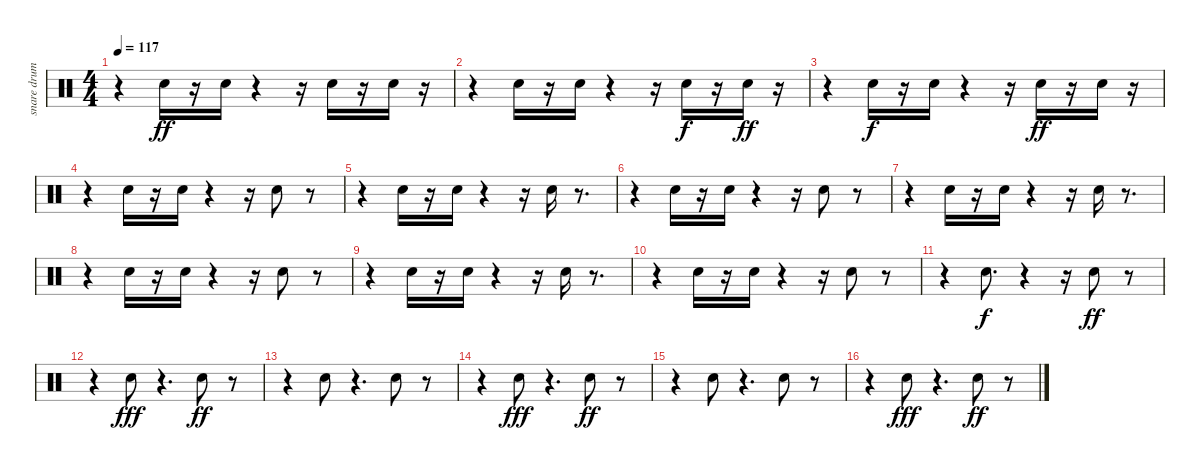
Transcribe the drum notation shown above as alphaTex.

\track ("snare drum" "snare drum") {instrument percussion}
\staff {score}
\articulation defaults
\ts (4 4)
\tempo 117
\clef neutral
\ks c
r.4{dy ff} "Snare (hit) 2".16 r.16 "Snare (hit) 2".16 r.4 r.16 "Snare (hit) 2".16 r.16 "Snare (hit) 2".16 r.16 |
r.4 "Snare (hit) 2".16 r.16 "Snare (hit) 2".16 r.4 r.16 "Snare (hit) 2".16{dy f} r.16 "Snare (hit) 2".16{dy ff} r.16 |
r.4 "Snare (hit) 2".16{dy f} r.16 "Snare (hit) 2".16 r.4 r.16 "Snare (hit) 2".16{dy ff} r.16 "Snare (hit) 2".16 r.16 |
r.4 "Snare (hit) 2".16 r.16 "Snare (hit) 2".16 r.4 r.16 "Snare (hit) 2".8 r.8 |
r.4 "Snare (hit) 2".16 r.16 "Snare (hit) 2".16 r.4 r.16 "Snare (hit) 2".16 r.8{d} |
r.4 "Snare (hit) 2".16 r.16 "Snare (hit) 2".16 r.4 r.16 "Snare (hit) 2".8 r.8 |
r.4 "Snare (hit) 2".16 r.16 "Snare (hit) 2".16 r.4 r.16 "Snare (hit) 2".16 r.8{d} |
r.4 "Snare (hit) 2".16 r.16 "Snare (hit) 2".16 r.4 r.16 "Snare (hit) 2".8 r.8 |
r.4 "Snare (hit) 2".16 r.16 "Snare (hit) 2".16 r.4 r.16 "Snare (hit) 2".16 r.8{d} |
r.4 "Snare (hit) 2".16 r.16 "Snare (hit) 2".16 r.4 r.16 "Snare (hit) 2".8 r.8 |
r.4 "Snare (hit) 2".8{d dy f} r.4 r.16 "Snare (hit) 2".8{dy ff} r.8 |
r.4 "Snare (hit) 2".8{dy fff} r.4{d} "Snare (hit) 2".8{dy ff} r.8 |
r.4 "Snare (hit) 2".8 r.4{d} "Snare (hit) 2".8 r.8 |
r.4 "Snare (hit) 2".8{dy fff} r.4{d} "Snare (hit) 2".8{dy ff} r.8 |
r.4 "Snare (hit) 2".8 r.4{d} "Snare (hit) 2".8 r.8 |
r.4 "Snare (hit) 2".8{dy fff} r.4{d} "Snare (hit) 2".8{dy ff} r.8
